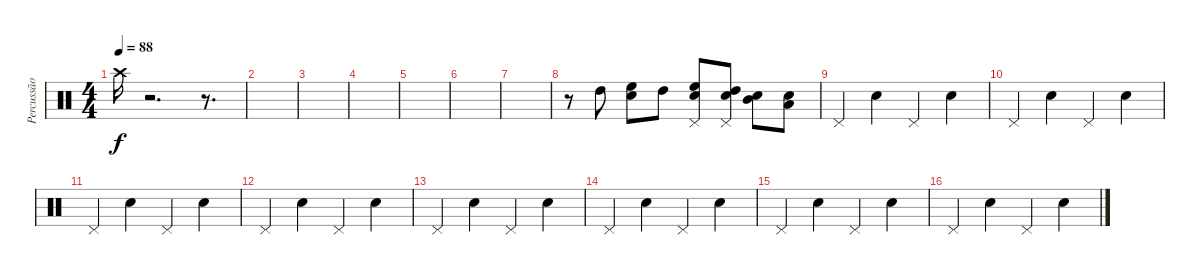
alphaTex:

\track ("Percussão" "Percussão") {instrument percussion}
\staff {score}
\articulation defaults
\ts (4 4)
\tempo 88
\clef neutral
\ks c "Crash high (hit)".16{dy f}
r.2{d} r.8{d} |
|
|
|
|
|
|
r.8 "High Tom (hit)".8 ("Electric Snare (hit)" "High Floor Tom (hit)").8 "High Tom (hit)".8 ("Pedal Hi-Hat (hit)" "Electric Snare (hit)" "High Floor Tom (hit)").8 ("Pedal Hi-Hat (hit)" "Electric Snare (hit)" "High Tom (hit)").8 ("Electric Snare (hit)" "Mid Tom (hit)").8 ("Electric Snare (hit)" "Low Tom (hit)").8 |
"Pedal Hi-Hat (hit)".4 "Electric Snare (hit)".4 "Pedal Hi-Hat (hit)".4 "Electric Snare (hit)".4 |
"Pedal Hi-Hat (hit)".4 "Electric Snare (hit)".4 "Pedal Hi-Hat (hit)".4 "Electric Snare (hit)".4 |
"Pedal Hi-Hat (hit)".4 "Electric Snare (hit)".4 "Pedal Hi-Hat (hit)".4 "Electric Snare (hit)".4 |
"Pedal Hi-Hat (hit)".4 "Electric Snare (hit)".4 "Pedal Hi-Hat (hit)".4 "Electric Snare (hit)".4 |
"Pedal Hi-Hat (hit)".4 "Electric Snare (hit)".4 "Pedal Hi-Hat (hit)".4 "Electric Snare (hit)".4 |
"Pedal Hi-Hat (hit)".4 "Electric Snare (hit)".4 "Pedal Hi-Hat (hit)".4 "Electric Snare (hit)".4 |
"Pedal Hi-Hat (hit)".4 "Electric Snare (hit)".4 "Pedal Hi-Hat (hit)".4 "Electric Snare (hit)".4 |
"Pedal Hi-Hat (hit)".4 "Electric Snare (hit)".4 "Pedal Hi-Hat (hit)".4 "Electric Snare (hit)".4
